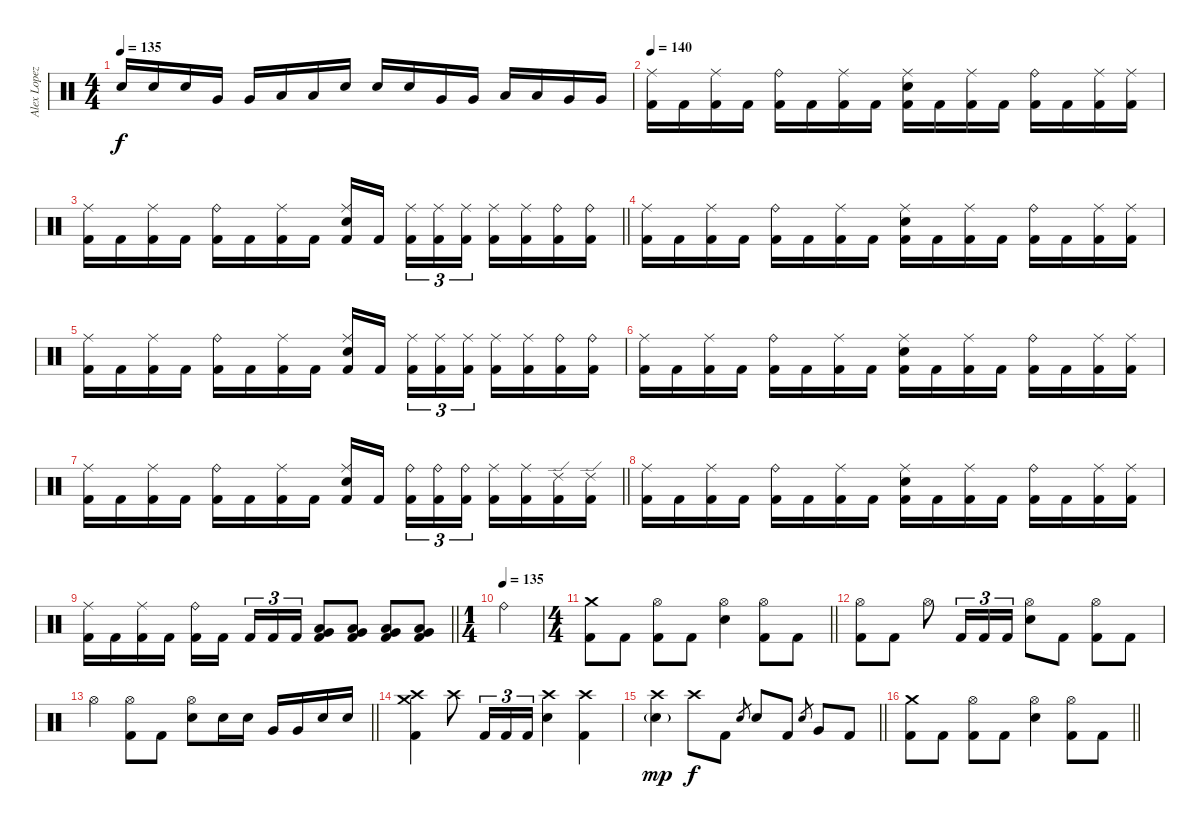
\track ("Alex Lopez" "Alex Lopez") {instrument percussion}
\staff {score}
\articulation defaults
\ts (4 4)
\tempo 135
\clef neutral
\ks c "Electric Snare (hit)".16{dy f} "Electric Snare (hit)".16 "Electric Snare (hit)".16 "Very Low Tom (hit)".16 "Very Low Tom (hit)".16 "Low Tom (hit)".16 "Low Tom (hit)".16 "Electric Snare (hit)".16 "Electric Snare (hit)".16 "Electric Snare (hit)".16 "Very Low Tom (hit)".16 "Very Low Tom (hit)".16 "Low Tom (hit)".16 "Low Tom (hit)".16 "Very Low Tom (hit)".16 "Very Low Tom (hit)".16
|
\tempo 140
("Ride (middle)" "Kick (hit) 2").16 "Kick (hit) 2".16 ("Ride (middle)" "Kick (hit) 2").16 "Kick (hit) 2".16 ("Ride (bell)" "Kick (hit) 2").16 "Kick (hit) 2".16 ("Ride (middle)" "Kick (hit) 2").16 "Kick (hit) 2".16 ("Ride (middle)" "Electric Snare (hit)" "Kick (hit) 2").16 "Kick (hit) 2".16 ("Ride (middle)" "Kick (hit) 2").16 "Kick (hit) 2".16 ("Ride (bell)" "Kick (hit) 2").16 "Kick (hit) 2".16 ("Ride (middle)" "Kick (hit) 2").16 ("Ride (middle)" "Kick (hit) 2").16 |
\barLineRight lightlight
("Ride (middle)" "Kick (hit) 2").16 "Kick (hit) 2".16 ("Ride (middle)" "Kick (hit) 2").16 "Kick (hit) 2".16 ("Ride (bell)" "Kick (hit) 2").16 "Kick (hit) 2".16 ("Ride (middle)" "Kick (hit) 2").16 "Kick (hit) 2".16 ("Ride (middle)" "Electric Snare (hit)" "Kick (hit) 2").16 "Kick (hit) 2".16{beam splitsecondary} ("Ride (middle)" "Kick (hit) 2").16{tu (3 2)} ("Ride (middle)" "Kick (hit) 2").16{tu (3 2)} ("Ride (middle)" "Kick (hit) 2").16{tu (3 2)} ("Ride (middle)" "Kick (hit) 2").16 ("Ride (middle)" "Kick (hit) 2").16 ("Ride (bell)" "Kick (hit) 2").16 ("Ride (bell)" "Kick (hit) 2").16 |
("Ride (middle)" "Kick (hit) 2").16 "Kick (hit) 2".16 ("Ride (middle)" "Kick (hit) 2").16 "Kick (hit) 2".16 ("Ride (bell)" "Kick (hit) 2").16 "Kick (hit) 2".16 ("Ride (middle)" "Kick (hit) 2").16 "Kick (hit) 2".16 ("Ride (middle)" "Electric Snare (hit)" "Kick (hit) 2").16 "Kick (hit) 2".16 ("Ride (middle)" "Kick (hit) 2").16 "Kick (hit) 2".16 ("Ride (bell)" "Kick (hit) 2").16 "Kick (hit) 2".16 ("Ride (middle)" "Kick (hit) 2").16 ("Ride (middle)" "Kick (hit) 2").16 |
("Ride (middle)" "Kick (hit) 2").16 "Kick (hit) 2".16 ("Ride (middle)" "Kick (hit) 2").16 "Kick (hit) 2".16 ("Ride (bell)" "Kick (hit) 2").16 "Kick (hit) 2".16 ("Ride (middle)" "Kick (hit) 2").16 "Kick (hit) 2".16 ("Ride (middle)" "Electric Snare (hit)" "Kick (hit) 2").16 "Kick (hit) 2".16{beam splitsecondary} ("Ride (middle)" "Kick (hit) 2").16{tu (3 2)} ("Ride (middle)" "Kick (hit) 2").16{tu (3 2)} ("Ride (middle)" "Kick (hit) 2").16{tu (3 2)} ("Ride (middle)" "Kick (hit) 2").16 ("Ride (middle)" "Kick (hit) 2").16 ("Ride (bell)" "Kick (hit) 2").16 ("Ride (bell)" "Kick (hit) 2").16 |
("Ride (middle)" "Kick (hit) 2").16 "Kick (hit) 2".16 ("Ride (middle)" "Kick (hit) 2").16 "Kick (hit) 2".16 ("Ride (bell)" "Kick (hit) 2").16 "Kick (hit) 2".16 ("Ride (middle)" "Kick (hit) 2").16 "Kick (hit) 2".16 ("Ride (middle)" "Electric Snare (hit)" "Kick (hit) 2").16 "Kick (hit) 2".16 ("Ride (middle)" "Kick (hit) 2").16 "Kick (hit) 2".16 ("Ride (bell)" "Kick (hit) 2").16 "Kick (hit) 2".16 ("Ride (middle)" "Kick (hit) 2").16 ("Ride (middle)" "Kick (hit) 2").16 |
\barLineRight lightlight
("Ride (middle)" "Kick (hit) 2").16 "Kick (hit) 2".16 ("Ride (middle)" "Kick (hit) 2").16 "Kick (hit) 2".16 ("Ride (bell)" "Kick (hit) 2").16 "Kick (hit) 2".16 ("Ride (middle)" "Kick (hit) 2").16 "Kick (hit) 2".16 ("Ride (middle)" "Electric Snare (hit)" "Kick (hit) 2").16 "Kick (hit) 2".16{beam splitsecondary} ("Ride (bell)" "Kick (hit) 2").16{tu (3 2)} ("Ride (bell)" "Kick (hit) 2").16{tu (3 2)} ("Ride (bell)" "Kick (hit) 2").16{tu (3 2)} ("Ride (middle)" "Kick (hit) 2").16 ("Ride (middle)" "Kick (hit) 2").16 ("Ride (edge) 2" "Kick (hit) 2").16 ("Ride (edge) 2" "Kick (hit) 2").16 |
("Ride (middle)" "Kick (hit) 2").16 "Kick (hit) 2".16 ("Ride (middle)" "Kick (hit) 2").16 "Kick (hit) 2".16 ("Ride (bell)" "Kick (hit) 2").16 "Kick (hit) 2".16 ("Ride (middle)" "Kick (hit) 2").16 "Kick (hit) 2".16 ("Ride (middle)" "Electric Snare (hit)" "Kick (hit) 2").16 "Kick (hit) 2".16 ("Ride (middle)" "Kick (hit) 2").16 "Kick (hit) 2".16 ("Ride (bell)" "Kick (hit) 2").16 "Kick (hit) 2".16 ("Ride (middle)" "Kick (hit) 2").16 ("Ride (middle)" "Kick (hit) 2").16 |
\barLineRight lightlight
("Ride (middle)" "Kick (hit) 2").16 "Kick (hit) 2".16 ("Ride (middle)" "Kick (hit) 2").16 "Kick (hit) 2".16 ("Ride (bell)" "Kick (hit) 2").16 "Kick (hit) 2".16{beam splitsecondary} "Kick (hit) 2".16{tu (3 2)} "Kick (hit) 2".16{tu (3 2)} "Kick (hit) 2".16{tu (3 2)} ("Low Floor Tom (hit)" "Very Low Tom (hit)" "Kick (hit) 2").8 ("Low Floor Tom (hit)" "Very Low Tom (hit)" "Kick (hit) 2").8 ("Low Floor Tom (hit)" "Very Low Tom (hit)" "Kick (hit) 2").8 ("Low Floor Tom (hit)" "Very Low Tom (hit)" "Kick (hit) 2").8 |
\ts (1 4)
\tempo (135)
"Ride (bell)".4 |
\ts (4 4)
\barLineRight lightlight
("Crash medium (hit)" "Kick (hit) 2").8 "Kick (hit) 2".8 ("Hi-Hat (open)" "Kick (hit) 2").8 "Kick (hit) 2".8 ("Hi-Hat (open)" "Electric Snare (hit)").4 ("Hi-Hat (open)" "Kick (hit) 2").8 "Kick (hit) 2".8 |
("Hi-Hat (open)" "Kick (hit) 2").8 "Kick (hit) 2".8 "Hi-Hat (open)".8 "Kick (hit) 2".16{tu (3 2)} "Kick (hit) 2".16{tu (3 2)} "Kick (hit) 2".16{tu (3 2)} ("Hi-Hat (open)" "Electric Snare (hit)").8 "Kick (hit) 2".8 ("Hi-Hat (open)" "Kick (hit) 2").8 "Kick (hit) 2".8 |
\barLineRight lightlight "Hi-Hat (open)".4
("Hi-Hat (open)" "Kick (hit) 2").8 "Kick (hit) 2".8 ("Hi-Hat (open)" "Electric Snare (hit)").8 "Electric Snare (hit)".16 "Electric Snare (hit)".16 "Very Low Tom (hit)".16 "Very Low Tom (hit)".16 "Electric Snare (hit)".16 "Electric Snare (hit)".16 |
("Crash medium (hit)" "Crash high (hit)" "Kick (hit) 2").4 "Crash high (hit)".8 "Kick (hit) 2".16{tu (3 2)} "Kick (hit) 2".16{tu (3 2)} "Kick (hit) 2".16{tu (3 2)} ("Crash high (hit)" "Electric Snare (hit)").4 ("Crash high (hit)" "Kick (hit) 2").4 |
\barLineRight lightlight
("Crash high (hit)" "Electric Snare (hit)"{g}).4{dy mp} "Crash high (hit)".8{dy f} "Kick (hit) 2".8 "Electric Snare (hit)".8{gr} "Electric Snare (hit)".8 "Kick (hit) 2".8 "Electric Snare (hit)".8{gr} "Very Low Tom (hit)".8 "Kick (hit) 2".8 |
\barLineRight lightlight
("Crash medium (hit)" "Kick (hit) 2").8 "Kick (hit) 2".8 ("Hi-Hat (open)" "Kick (hit) 2").8 "Kick (hit) 2".8 ("Hi-Hat (open)" "Electric Snare (hit)").4 ("Hi-Hat (open)" "Kick (hit) 2").8 "Kick (hit) 2".8
